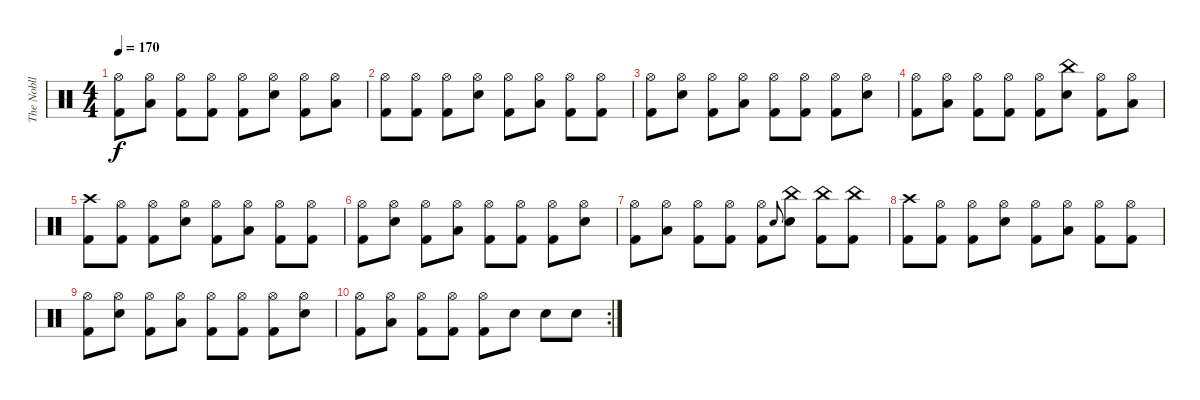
\track ("The Nobll" "The Nobll") {instrument percussion}
\staff {score}
\articulation defaults
\ts (4 4)
\tempo 170
\clef neutral
\ks c
("Hi-Hat (open)" "Kick (hit) 2").8{dy f} ("Hi-Hat (open)" "Low Tom (hit)").8 ("Hi-Hat (open)" "Kick (hit) 2").8 ("Hi-Hat (open)" "Kick (hit) 2").8 ("Hi-Hat (open)" "Kick (hit) 2").8 ("Hi-Hat (open)" "Snare (hit) 2").8 ("Hi-Hat (open)" "Kick (hit) 2").8 ("Hi-Hat (open)" "Low Tom (hit)").8 |
("Hi-Hat (open)" "Kick (hit) 2").8 ("Hi-Hat (open)" "Kick (hit) 2").8 ("Hi-Hat (open)" "Kick (hit) 2").8 ("Hi-Hat (open)" "Snare (hit) 2").8 ("Hi-Hat (open)" "Kick (hit) 2").8 ("Hi-Hat (open)" "Low Tom (hit)").8 ("Hi-Hat (open)" "Kick (hit) 2").8 ("Hi-Hat (open)" "Kick (hit) 2").8 |
("Hi-Hat (open)" "Kick (hit) 2").8 ("Hi-Hat (open)" "Snare (hit) 2").8 ("Hi-Hat (open)" "Kick (hit) 2").8 ("Hi-Hat (open)" "Low Tom (hit)").8 ("Hi-Hat (open)" "Kick (hit) 2").8 ("Hi-Hat (open)" "Kick (hit) 2").8 ("Hi-Hat (open)" "Kick (hit) 2").8 ("Hi-Hat (open)" "Snare (hit) 2").8 |
("Hi-Hat (open)" "Kick (hit) 2").8 ("Hi-Hat (open)" "Low Tom (hit)").8 ("Hi-Hat (open)" "Kick (hit) 2").8 ("Hi-Hat (open)" "Kick (hit) 2").8 ("Hi-Hat (open)" "Kick (hit) 2").8 ("China (hit)" "Snare (hit) 2").8 ("Hi-Hat (open)" "Kick (hit) 2").8 ("Hi-Hat (open)" "Low Tom (hit)").8 |
("Crash high (hit)" "Kick (hit) 2").8 ("Hi-Hat (open)" "Kick (hit) 2").8 ("Hi-Hat (open)" "Kick (hit) 2").8 ("Hi-Hat (open)" "Snare (hit) 2").8 ("Hi-Hat (open)" "Kick (hit) 2").8 ("Hi-Hat (open)" "Low Tom (hit)").8 ("Hi-Hat (open)" "Kick (hit) 2").8 ("Hi-Hat (open)" "Kick (hit) 2").8 |
("Hi-Hat (open)" "Kick (hit) 2").8 ("Hi-Hat (open)" "Snare (hit) 2").8 ("Hi-Hat (open)" "Kick (hit) 2").8 ("Hi-Hat (open)" "Low Tom (hit)").8 ("Hi-Hat (open)" "Kick (hit) 2").8 ("Hi-Hat (open)" "Kick (hit) 2").8 ("Hi-Hat (open)" "Kick (hit) 2").8 ("Hi-Hat (open)" "Snare (hit) 2").8 |
("Hi-Hat (open)" "Kick (hit) 2").8 ("Hi-Hat (open)" "Low Tom (hit)").8 ("Hi-Hat (open)" "Kick (hit) 2").8 ("Hi-Hat (open)" "Kick (hit) 2").8 ("Hi-Hat (open)" "Kick (hit) 2").8 "Snare (hit) 2".8{gr onbeat} ("China (hit)" "Snare (hit) 2").8 ("China (hit)" "Kick (hit) 2").8 ("China (hit)" "Kick (hit) 2").8 |
("Crash high (hit)" "Kick (hit) 2").8 ("Hi-Hat (open)" "Kick (hit) 2").8 ("Hi-Hat (open)" "Kick (hit) 2").8 ("Hi-Hat (open)" "Snare (hit) 2").8 ("Hi-Hat (open)" "Kick (hit) 2").8 ("Hi-Hat (open)" "Low Tom (hit)").8 ("Hi-Hat (open)" "Kick (hit) 2").8 ("Hi-Hat (open)" "Kick (hit) 2").8 |
("Hi-Hat (open)" "Kick (hit) 2").8 ("Hi-Hat (open)" "Snare (hit) 2").8 ("Hi-Hat (open)" "Kick (hit) 2").8 ("Hi-Hat (open)" "Low Tom (hit)").8 ("Hi-Hat (open)" "Kick (hit) 2").8 ("Hi-Hat (open)" "Kick (hit) 2").8 ("Hi-Hat (open)" "Kick (hit) 2").8 ("Hi-Hat (open)" "Snare (hit) 2").8 |
\rc 2
("Hi-Hat (open)" "Kick (hit) 2").8 ("Hi-Hat (open)" "Low Tom (hit)").8 ("Hi-Hat (open)" "Kick (hit) 2").8 ("Hi-Hat (open)" "Kick (hit) 2").8 ("Hi-Hat (open)" "Kick (hit) 2").8 "Snare (hit) 2".8 "Snare (hit) 2".8 "Snare (hit) 2".8
